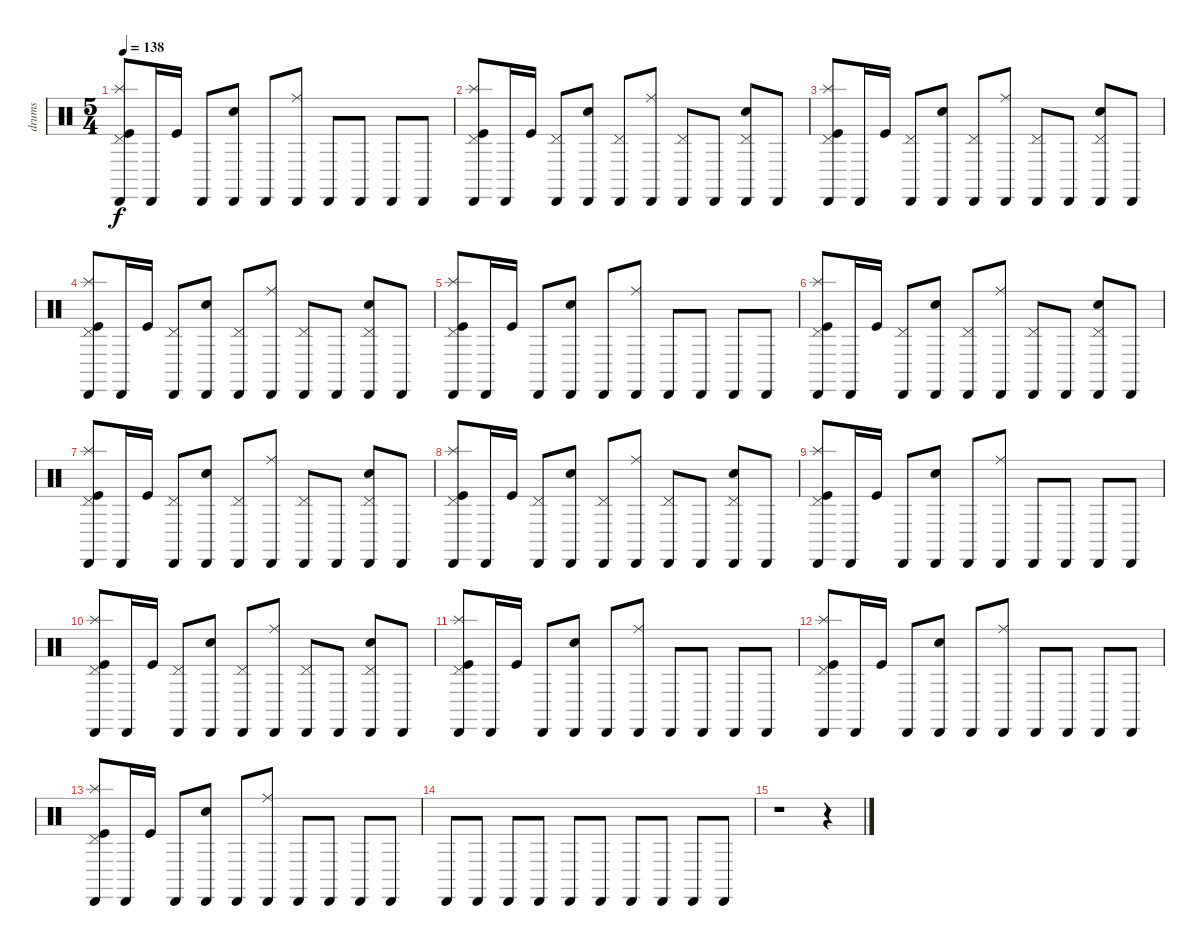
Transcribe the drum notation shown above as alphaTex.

\track ("drums" "drums") {instrument percussion}
\staff {score}
\articulation defaults
\ts (5 4)
\tempo 138
\clef neutral
\ks c
("Pedal Hi-Hat (hit)" "Splash (hit)" "Kick (hit)" "Cabasa (hit)").8{dy f} "Cabasa (hit)".16 "Kick (hit)".16 "Cabasa (hit)".8 ("Snare (hit) 2" "Cabasa (hit)").8 "Cabasa (hit)".8 ("Ride (middle)" "Cabasa (hit)").8 "Cabasa (hit)".8 "Cabasa (hit)".8 "Cabasa (hit)".8 "Cabasa (hit)".8 |
("Cabasa (hit)" "Splash (hit)" "Pedal Hi-Hat (hit)" "Kick (hit)").8 "Cabasa (hit)".16 "Kick (hit)".16 ("Pedal Hi-Hat (hit)" "Cabasa (hit)").8 ("Snare (hit) 2" "Cabasa (hit)").8 ("Pedal Hi-Hat (hit)" "Cabasa (hit)").8 ("Ride (middle)" "Cabasa (hit)").8 ("Pedal Hi-Hat (hit)" "Cabasa (hit)").8 "Cabasa (hit)".8 ("Snare (hit) 2" "Pedal Hi-Hat (hit)" "Cabasa (hit)").8 "Cabasa (hit)".8 |
("Cabasa (hit)" "Splash (hit)" "Pedal Hi-Hat (hit)" "Kick (hit)").8 "Cabasa (hit)".16 "Kick (hit)".16 ("Pedal Hi-Hat (hit)" "Cabasa (hit)").8 ("Snare (hit) 2" "Cabasa (hit)").8 ("Pedal Hi-Hat (hit)" "Cabasa (hit)").8 ("Ride (middle)" "Cabasa (hit)").8 ("Pedal Hi-Hat (hit)" "Cabasa (hit)").8 "Cabasa (hit)".8 ("Snare (hit) 2" "Pedal Hi-Hat (hit)" "Cabasa (hit)").8 "Cabasa (hit)".8 |
("Cabasa (hit)" "Splash (hit)" "Pedal Hi-Hat (hit)" "Kick (hit)").8 "Cabasa (hit)".16 "Kick (hit)".16 ("Pedal Hi-Hat (hit)" "Cabasa (hit)").8 ("Snare (hit) 2" "Cabasa (hit)").8 ("Pedal Hi-Hat (hit)" "Cabasa (hit)").8 ("Ride (middle)" "Cabasa (hit)").8 ("Pedal Hi-Hat (hit)" "Cabasa (hit)").8 "Cabasa (hit)".8 ("Snare (hit) 2" "Pedal Hi-Hat (hit)" "Cabasa (hit)").8 "Cabasa (hit)".8 |
("Pedal Hi-Hat (hit)" "Splash (hit)" "Kick (hit)" "Cabasa (hit)").8 "Cabasa (hit)".16 "Kick (hit)".16 "Cabasa (hit)".8 ("Snare (hit) 2" "Cabasa (hit)").8 "Cabasa (hit)".8 ("Ride (middle)" "Cabasa (hit)").8 "Cabasa (hit)".8 "Cabasa (hit)".8 "Cabasa (hit)".8 "Cabasa (hit)".8 |
("Cabasa (hit)" "Splash (hit)" "Pedal Hi-Hat (hit)" "Kick (hit)").8 "Cabasa (hit)".16 "Kick (hit)".16 ("Pedal Hi-Hat (hit)" "Cabasa (hit)").8 ("Snare (hit) 2" "Cabasa (hit)").8 ("Pedal Hi-Hat (hit)" "Cabasa (hit)").8 ("Ride (middle)" "Cabasa (hit)").8 ("Pedal Hi-Hat (hit)" "Cabasa (hit)").8 "Cabasa (hit)".8 ("Snare (hit) 2" "Pedal Hi-Hat (hit)" "Cabasa (hit)").8 "Cabasa (hit)".8 |
("Cabasa (hit)" "Splash (hit)" "Pedal Hi-Hat (hit)" "Kick (hit)").8 "Cabasa (hit)".16 "Kick (hit)".16 ("Pedal Hi-Hat (hit)" "Cabasa (hit)").8 ("Snare (hit) 2" "Cabasa (hit)").8 ("Pedal Hi-Hat (hit)" "Cabasa (hit)").8 ("Ride (middle)" "Cabasa (hit)").8 ("Pedal Hi-Hat (hit)" "Cabasa (hit)").8 "Cabasa (hit)".8 ("Snare (hit) 2" "Pedal Hi-Hat (hit)" "Cabasa (hit)").8 "Cabasa (hit)".8 |
("Cabasa (hit)" "Splash (hit)" "Pedal Hi-Hat (hit)" "Kick (hit)").8 "Cabasa (hit)".16 "Kick (hit)".16 ("Pedal Hi-Hat (hit)" "Cabasa (hit)").8 ("Snare (hit) 2" "Cabasa (hit)").8 ("Pedal Hi-Hat (hit)" "Cabasa (hit)").8 ("Ride (middle)" "Cabasa (hit)").8 ("Pedal Hi-Hat (hit)" "Cabasa (hit)").8 "Cabasa (hit)".8 ("Snare (hit) 2" "Pedal Hi-Hat (hit)" "Cabasa (hit)").8 "Cabasa (hit)".8 |
("Pedal Hi-Hat (hit)" "Splash (hit)" "Kick (hit)" "Cabasa (hit)").8 "Cabasa (hit)".16 "Kick (hit)".16 "Cabasa (hit)".8 ("Snare (hit) 2" "Cabasa (hit)").8 "Cabasa (hit)".8 ("Ride (middle)" "Cabasa (hit)").8 "Cabasa (hit)".8 "Cabasa (hit)".8 "Cabasa (hit)".8 "Cabasa (hit)".8 |
("Cabasa (hit)" "Splash (hit)" "Pedal Hi-Hat (hit)" "Kick (hit)").8 "Cabasa (hit)".16 "Kick (hit)".16 ("Pedal Hi-Hat (hit)" "Cabasa (hit)").8 ("Snare (hit) 2" "Cabasa (hit)").8 ("Pedal Hi-Hat (hit)" "Cabasa (hit)").8 ("Ride (middle)" "Cabasa (hit)").8 ("Pedal Hi-Hat (hit)" "Cabasa (hit)").8 "Cabasa (hit)".8 ("Snare (hit) 2" "Pedal Hi-Hat (hit)" "Cabasa (hit)").8 "Cabasa (hit)".8 |
("Pedal Hi-Hat (hit)" "Splash (hit)" "Kick (hit)" "Cabasa (hit)").8 "Cabasa (hit)".16 "Kick (hit)".16 "Cabasa (hit)".8 ("Snare (hit) 2" "Cabasa (hit)").8 "Cabasa (hit)".8 ("Ride (middle)" "Cabasa (hit)").8 "Cabasa (hit)".8 "Cabasa (hit)".8 "Cabasa (hit)".8 "Cabasa (hit)".8 |
("Pedal Hi-Hat (hit)" "Splash (hit)" "Kick (hit)" "Cabasa (hit)").8 "Cabasa (hit)".16 "Kick (hit)".16 "Cabasa (hit)".8 ("Snare (hit) 2" "Cabasa (hit)").8 "Cabasa (hit)".8 ("Ride (middle)" "Cabasa (hit)").8 "Cabasa (hit)".8 "Cabasa (hit)".8 "Cabasa (hit)".8 "Cabasa (hit)".8 |
("Pedal Hi-Hat (hit)" "Splash (hit)" "Kick (hit)" "Cabasa (hit)").8 "Cabasa (hit)".16 "Kick (hit)".16 "Cabasa (hit)".8 ("Snare (hit) 2" "Cabasa (hit)").8 "Cabasa (hit)".8 ("Ride (middle)" "Cabasa (hit)").8 "Cabasa (hit)".8 "Cabasa (hit)".8 "Cabasa (hit)".8 "Cabasa (hit)".8 |
"Cabasa (hit)".8 "Cabasa (hit)".8 "Cabasa (hit)".8 "Cabasa (hit)".8 "Cabasa (hit)".8 "Cabasa (hit)".8 "Cabasa (hit)".8 "Cabasa (hit)".8 "Cabasa (hit)".8 "Cabasa (hit)".8 |
r.1 r.4
